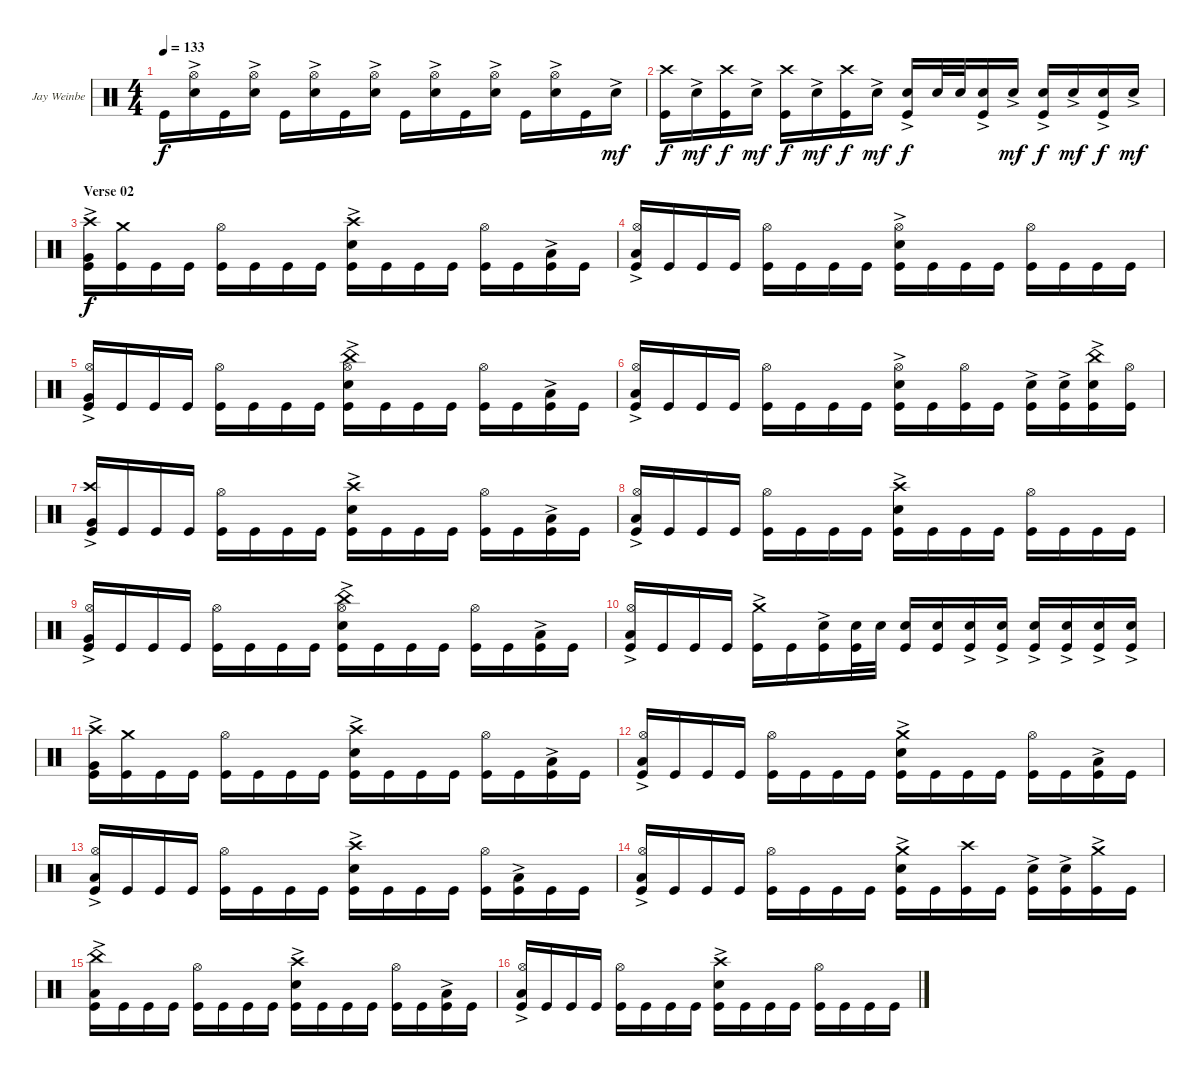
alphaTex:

\bracketExtendMode groupsimilarinstruments
\firstSystemTrackNameOrientation horizontal
\otherSystemsTrackNameOrientation horizontal
\track ("Jay Weinberg" "Jay Weinbe") {instrument percussion}
\staff {score}
\articulation defaults
\ts (4 4)
\tempo 133
\clef neutral
\ks c "Kick (hit)".16{dy f}
("Snare (hit) 2"{ac} "Hi-Hat (open)").16 "Kick (hit)".16 ("Snare (hit) 2"{ac} "Hi-Hat (open)").16 "Kick (hit)".16 ("Snare (hit) 2"{ac} "Hi-Hat (open)").16 "Kick (hit)".16 ("Snare (hit) 2"{ac} "Hi-Hat (open)").16 "Kick (hit)".16 ("Snare (hit) 2"{ac} "Hi-Hat (open)").16 "Kick (hit)".16 ("Snare (hit) 2"{ac} "Hi-Hat (open)").16 "Kick (hit)".16 ("Snare (hit) 2"{ac} "Hi-Hat (open)").16 "Kick (hit)".16 "Snare (hit) 2"{ac}.16{dy mf} |
("Kick (hit)" "Crash high (hit)").16{dy f} "Snare (hit) 2"{ac}.16{dy mf} ("Kick (hit)" "Crash high (hit)").16{dy f} "Snare (hit) 2"{ac}.16{dy mf} ("Kick (hit)" "Crash high (hit)").16{dy f} "Snare (hit) 2"{ac}.16{dy mf} ("Kick (hit)" "Crash high (hit)").16{dy f} "Snare (hit) 2"{ac}.16{dy mf} ("Kick (hit)" "Snare (hit) 2"{ac}).16{dy f} "Snare (hit) 2".32 "Snare (hit) 2".32 ("Kick (hit)" "Snare (hit) 2"{ac}).16 "Snare (hit) 2"{ac}.16{dy mf} ("Kick (hit)" "Snare (hit) 2"{ac}).16{dy f} "Snare (hit) 2"{ac}.16{dy mf} ("Kick (hit)" "Snare (hit) 2"{ac}).16{dy f} "Snare (hit) 2"{ac}.16{dy mf} |
\section ("" "Verse 02")
("Kick (hit)" "Crash high (hit)" "Very Low Tom (hit)"{ac}).16{dy f} ("Kick (hit)" "Crash medium (hit)").16 "Kick (hit)".16 "Kick (hit)".16 ("Kick (hit)" "Hi-Hat (open)").16 "Kick (hit)".16 "Kick (hit)".16 "Kick (hit)".16 ("Kick (hit)" "Snare (hit) 2"{ac} "Crash high (hit)").16 "Kick (hit)".16 "Kick (hit)".16 "Kick (hit)".16 ("Kick (hit)" "Hi-Hat (open)").16 "Kick (hit)".16 ("Kick (hit)" "Low Tom (hit)"{ac}).16 "Kick (hit)".16 |
("Kick (hit)" "Low Tom (hit)"{ac} "Hi-Hat (open)").16 "Kick (hit)".16 "Kick (hit)".16 "Kick (hit)".16 ("Kick (hit)" "Hi-Hat (open)").16 "Kick (hit)".16 "Kick (hit)".16 "Kick (hit)".16 ("Kick (hit)" "Hi-Hat (open)" "Snare (hit) 2"{ac}).16 "Kick (hit)".16 "Kick (hit)".16 "Kick (hit)".16 ("Kick (hit)" "Hi-Hat (open)").16 "Kick (hit)".16 "Kick (hit)".16 "Kick (hit)".16 |
("Kick (hit)" "Very Low Tom (hit)"{ac} "Hi-Hat (open)").16 "Kick (hit)".16 "Kick (hit)".16 "Kick (hit)".16 ("Kick (hit)" "Hi-Hat (open)").16 "Kick (hit)".16 "Kick (hit)".16 "Kick (hit)".16 ("Kick (hit)" "Snare (hit) 2"{ac} "Hi-Hat (open)" "China (hit)").16 "Kick (hit)".16 "Kick (hit)".16 "Kick (hit)".16 ("Kick (hit)" "Hi-Hat (open)").16 "Kick (hit)".16 ("Kick (hit)" "Low Tom (hit)"{ac}).16 "Kick (hit)".16 |
("Kick (hit)" "Low Tom (hit)"{ac} "Hi-Hat (open)").16 "Kick (hit)".16 "Kick (hit)".16 "Kick (hit)".16 ("Kick (hit)" "Hi-Hat (open)").16 "Kick (hit)".16 "Kick (hit)".16 "Kick (hit)".16 ("Kick (hit)" "Snare (hit) 2"{ac} "Hi-Hat (open)").16 "Kick (hit)".16 ("Kick (hit)" "Hi-Hat (open)").16 "Kick (hit)".16 ("Kick (hit)" "Snare (hit) 2"{ac}).16 ("Kick (hit)" "Snare (hit) 2"{ac}).16 ("Kick (hit)" "Snare (hit) 2"{ac} "China (hit)"{ac}).16 ("Kick (hit)" "Hi-Hat (open)").16 |
("Kick (hit)" "Crash high (hit)" "Very Low Tom (hit)"{ac}).16 "Kick (hit)".16 "Kick (hit)".16 "Kick (hit)".16 ("Kick (hit)" "Hi-Hat (open)").16 "Kick (hit)".16 "Kick (hit)".16 "Kick (hit)".16 ("Kick (hit)" "Snare (hit) 2"{ac} "Crash high (hit)").16 "Kick (hit)".16 "Kick (hit)".16 "Kick (hit)".16 ("Kick (hit)" "Hi-Hat (open)").16 "Kick (hit)".16 ("Kick (hit)" "Low Tom (hit)"{ac}).16 "Kick (hit)".16 |
("Kick (hit)" "Low Tom (hit)"{ac} "Hi-Hat (open)").16 "Kick (hit)".16 "Kick (hit)".16 "Kick (hit)".16 ("Kick (hit)" "Hi-Hat (open)").16 "Kick (hit)".16 "Kick (hit)".16 "Kick (hit)".16 ("Kick (hit)" "Snare (hit) 2"{ac} "Crash high (hit)").16 "Kick (hit)".16 "Kick (hit)".16 "Kick (hit)".16 ("Kick (hit)" "Hi-Hat (open)").16 "Kick (hit)".16 "Kick (hit)".16 "Kick (hit)".16 |
("Kick (hit)" "Very Low Tom (hit)"{ac} "Hi-Hat (open)").16 "Kick (hit)".16 "Kick (hit)".16 "Kick (hit)".16 ("Kick (hit)" "Hi-Hat (open)").16 "Kick (hit)".16 "Kick (hit)".16 "Kick (hit)".16 ("Kick (hit)" "Snare (hit) 2"{ac} "Hi-Hat (open)" "China (hit)").16 "Kick (hit)".16 "Kick (hit)".16 "Kick (hit)".16 ("Kick (hit)" "Hi-Hat (open)").16 "Kick (hit)".16 ("Kick (hit)" "Low Tom (hit)"{ac}).16 "Kick (hit)".16 |
("Kick (hit)" "Hi-Hat (open)" "Low Tom (hit)"{ac}).16 "Kick (hit)".16 "Kick (hit)".16 "Kick (hit)".16 ("Kick (hit)" "Crash medium (hit)"{ac}).16 "Kick (hit)".16 ("Kick (hit)" "Snare (hit) 2"{ac}).16 ("Kick (hit)" "Snare (hit) 2").32 "Snare (hit) 2".32 ("Kick (hit)" "Snare (hit) 2").16 ("Kick (hit)" "Snare (hit) 2").16 ("Kick (hit)" "Snare (hit) 2"{ac}).16 ("Kick (hit)" "Snare (hit) 2"{ac}).16 ("Kick (hit)" "Snare (hit) 2"{ac}).16 ("Kick (hit)" "Snare (hit) 2"{ac}).16 ("Kick (hit)" "Snare (hit) 2"{ac}).16 ("Kick (hit)" "Snare (hit) 2"{ac}).16 |
("Kick (hit)" "Crash high (hit)" "Very Low Tom (hit)"{ac}).16 ("Kick (hit)" "Crash medium (hit)").16 "Kick (hit)".16 "Kick (hit)".16 ("Kick (hit)" "Hi-Hat (open)").16 "Kick (hit)".16 "Kick (hit)".16 "Kick (hit)".16 ("Kick (hit)" "Snare (hit) 2"{ac} "Crash high (hit)").16 "Kick (hit)".16 "Kick (hit)".16 "Kick (hit)".16 ("Kick (hit)" "Hi-Hat (open)").16 "Kick (hit)".16 ("Kick (hit)" "Low Tom (hit)"{ac}).16 "Kick (hit)".16 |
("Kick (hit)" "Low Tom (hit)"{ac} "Hi-Hat (open)").16 "Kick (hit)".16 "Kick (hit)".16 "Kick (hit)".16 ("Kick (hit)" "Hi-Hat (open)").16 "Kick (hit)".16 "Kick (hit)".16 "Kick (hit)".16 ("Kick (hit)" "Snare (hit) 2"{ac} "Crash medium (hit)").16 "Kick (hit)".16 "Kick (hit)".16 "Kick (hit)".16 ("Kick (hit)" "Hi-Hat (open)").16 "Kick (hit)".16 ("Kick (hit)" "Low Tom (hit)"{ac}).16 "Kick (hit)".16 |
("Kick (hit)" "Hi-Hat (open)" "Low Tom (hit)"{ac}).16 "Kick (hit)".16 "Kick (hit)".16 "Kick (hit)".16 ("Kick (hit)" "Hi-Hat (open)").16 "Kick (hit)".16 "Kick (hit)".16 "Kick (hit)".16 ("Kick (hit)" "Crash high (hit)" "Snare (hit) 2"{ac}).16 "Kick (hit)".16 "Kick (hit)".16 "Kick (hit)".16 ("Kick (hit)" "Hi-Hat (open)").16 ("Kick (hit)" "Low Tom (hit)"{ac}).16 "Kick (hit)".16 "Kick (hit)".16 |
("Kick (hit)" "Hi-Hat (open)" "Low Tom (hit)"{ac}).16 "Kick (hit)".16 "Kick (hit)".16 "Kick (hit)".16 ("Kick (hit)" "Hi-Hat (open)").16 "Kick (hit)".16 "Kick (hit)".16 "Kick (hit)".16 ("Kick (hit)" "Crash medium (hit)" "Snare (hit) 2"{ac}).16 "Kick (hit)".16 ("Kick (hit)" "Crash high (hit)").16 "Kick (hit)".16 ("Kick (hit)" "Snare (hit) 2"{ac}).16 ("Kick (hit)" "Snare (hit) 2"{ac}).16 ("Kick (hit)" "Crash medium (hit)"{ac}).16 "Kick (hit)".16 |
("Kick (hit)" "China (hit)"{ac} "Low Tom (hit)"{ac}).16 "Kick (hit)".16 "Kick (hit)".16 "Kick (hit)".16 ("Kick (hit)" "Hi-Hat (open)").16 "Kick (hit)".16 "Kick (hit)".16 "Kick (hit)".16 ("Kick (hit)" "Crash high (hit)" "Snare (hit) 2"{ac}).16 "Kick (hit)".16 "Kick (hit)".16 "Kick (hit)".16 ("Kick (hit)" "Hi-Hat (open)").16 "Kick (hit)".16 ("Kick (hit)" "Low Tom (hit)"{ac}).16 "Kick (hit)".16 |
("Kick (hit)" "Hi-Hat (open)" "Low Tom (hit)"{ac}).16 "Kick (hit)".16 "Kick (hit)".16 "Kick (hit)".16 ("Kick (hit)" "Hi-Hat (open)").16 "Kick (hit)".16 "Kick (hit)".16 "Kick (hit)".16 ("Kick (hit)" "Crash high (hit)" "Snare (hit) 2"{ac}).16 "Kick (hit)".16 "Kick (hit)".16 "Kick (hit)".16 ("Kick (hit)" "Hi-Hat (open)").16 "Kick (hit)".16 "Kick (hit)".16 "Kick (hit)".16
